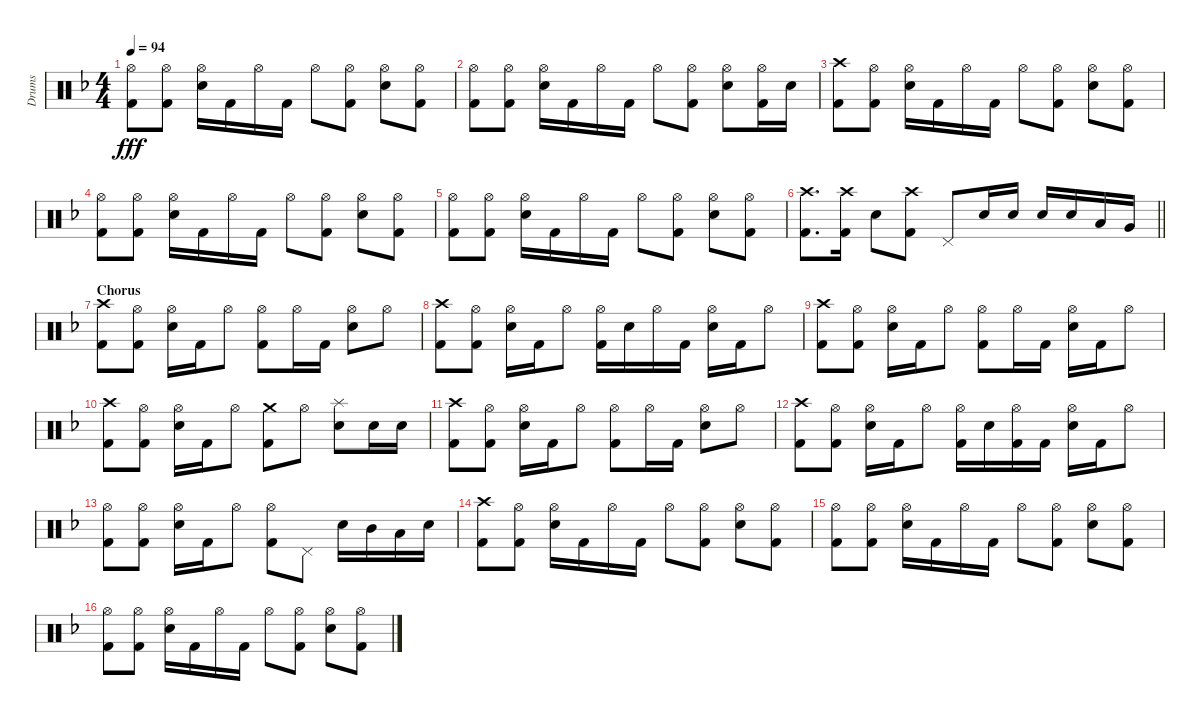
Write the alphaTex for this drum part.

\track ("Drums" "Drums") {instrument percussion}
\staff {score}
\articulation defaults
\ts (4 4)
\tempo 94
\clef neutral
\ks f
("Hi-Hat (open)" "Kick (hit) 2").8{dy fff} ("Hi-Hat (open)" "Kick (hit) 2").8 ("Hi-Hat (open)" "Snare (hit) 2").16 "Kick (hit) 2".16 "Hi-Hat (open)".16 "Kick (hit) 2".16 "Hi-Hat (open)".8 ("Hi-Hat (open)" "Kick (hit) 2").8 ("Hi-Hat (open)" "Snare (hit) 2").8 ("Hi-Hat (open)" "Kick (hit) 2").8 |
("Hi-Hat (open)" "Kick (hit) 2").8 ("Hi-Hat (open)" "Kick (hit) 2").8 ("Hi-Hat (open)" "Snare (hit) 2").16 "Kick (hit) 2".16 "Hi-Hat (open)".16 "Kick (hit) 2".16 "Hi-Hat (open)".8 ("Hi-Hat (open)" "Kick (hit) 2").8 ("Hi-Hat (open)" "Snare (hit) 2").8 ("Hi-Hat (open)" "Kick (hit) 2").16 "Snare (hit) 2".16 |
("Crash high (hit)" "Kick (hit) 2").8 ("Hi-Hat (open)" "Kick (hit) 2").8 ("Hi-Hat (open)" "Snare (hit) 2").16 "Kick (hit) 2".16 "Hi-Hat (open)".16 "Kick (hit) 2".16 "Hi-Hat (open)".8 ("Hi-Hat (open)" "Kick (hit) 2").8 ("Hi-Hat (open)" "Snare (hit) 2").8 ("Hi-Hat (open)" "Kick (hit) 2").8 |
("Hi-Hat (open)" "Kick (hit) 2").8 ("Hi-Hat (open)" "Kick (hit) 2").8 ("Hi-Hat (open)" "Snare (hit) 2").16 "Kick (hit) 2".16 "Hi-Hat (open)".16 "Kick (hit) 2".16 "Hi-Hat (open)".8 ("Hi-Hat (open)" "Kick (hit) 2").8 ("Hi-Hat (open)" "Snare (hit) 2").8 ("Hi-Hat (open)" "Kick (hit) 2").8 |
("Hi-Hat (open)" "Kick (hit) 2").8 ("Hi-Hat (open)" "Kick (hit) 2").8 ("Hi-Hat (open)" "Snare (hit) 2").16 "Kick (hit) 2".16 "Hi-Hat (open)".16 "Kick (hit) 2".16 "Hi-Hat (open)".8 ("Hi-Hat (open)" "Kick (hit) 2").8 ("Hi-Hat (open)" "Snare (hit) 2").8 ("Hi-Hat (open)" "Kick (hit) 2").8 |
\barLineRight lightlight
("Crash high (hit)" "Kick (hit) 2").8{d} ("Crash high (hit)" "Kick (hit) 2").16 "Snare (hit) 2".8 ("Crash high (hit)" "Kick (hit) 2").8 "Pedal Hi-Hat (hit)".8 "Snare (hit) 2".16 "Snare (hit) 2".16 "Snare (hit) 2".16 "Snare (hit) 2".16 "Low Tom (hit)".16 "Very Low Tom (hit)".16 |
\section ("" "Chorus")
("Crash high (hit)" "Kick (hit) 2").8 ("Hi-Hat (open)" "Kick (hit) 2").8 ("Hi-Hat (open)" "Snare (hit) 2").16 "Kick (hit) 2".16 "Hi-Hat (open)".8 ("Hi-Hat (open)" "Kick (hit) 2").8 "Hi-Hat (open)".16 "Kick (hit) 2".16 ("Hi-Hat (open)" "Snare (hit) 2").8 "Hi-Hat (open)".8 |
("Crash high (hit)" "Kick (hit) 2").8 ("Hi-Hat (open)" "Kick (hit) 2").8 ("Hi-Hat (open)" "Snare (hit) 2").16 "Kick (hit) 2".16 "Hi-Hat (open)".8 ("Hi-Hat (open)" "Kick (hit) 2").16 "Snare (hit) 2".16 "Hi-Hat (open)".16 "Kick (hit) 2".16 ("Hi-Hat (open)" "Snare (hit) 2").16 "Kick (hit) 2".16 "Hi-Hat (open)".8 |
("Crash high (hit)" "Kick (hit) 2").8 ("Hi-Hat (open)" "Kick (hit) 2").8 ("Hi-Hat (open)" "Snare (hit) 2").16 "Kick (hit) 2".16 "Hi-Hat (open)".8 ("Hi-Hat (open)" "Kick (hit) 2").8 "Hi-Hat (open)".16 "Kick (hit) 2".16 ("Hi-Hat (open)" "Snare (hit) 2").16 "Kick (hit) 2".16 "Hi-Hat (open)".8 |
("Crash high (hit)" "Kick (hit) 2").8 ("Hi-Hat (open)" "Kick (hit) 2").8 ("Hi-Hat (open)" "Snare (hit) 2").16 "Kick (hit) 2".16 "Hi-Hat (open)".8 ("Crash medium (hit)" "Kick (hit) 2").8 "Hi-Hat (open)".8 ("Splash (hit)" "Snare (hit) 2").8 "Snare (hit) 2".16 "Snare (hit) 2".16 |
("Crash high (hit)" "Kick (hit) 2").8 ("Hi-Hat (open)" "Kick (hit) 2").8 ("Hi-Hat (open)" "Snare (hit) 2").16 "Kick (hit) 2".16 "Hi-Hat (open)".8 ("Hi-Hat (open)" "Kick (hit) 2").8 "Hi-Hat (open)".16 "Kick (hit) 2".16 ("Hi-Hat (open)" "Snare (hit) 2").8 "Hi-Hat (open)".8 |
("Crash high (hit)" "Kick (hit) 2").8 ("Hi-Hat (open)" "Kick (hit) 2").8 ("Hi-Hat (open)" "Snare (hit) 2").16 "Kick (hit) 2".16 "Hi-Hat (open)".8 ("Hi-Hat (open)" "Kick (hit) 2").16 "Snare (hit) 2".16 ("Hi-Hat (open)" "Kick (hit) 2").16 "Kick (hit) 2".16 ("Hi-Hat (open)" "Snare (hit) 2").16 "Kick (hit) 2".16 "Hi-Hat (open)".8 |
("Hi-Hat (open)" "Kick (hit) 2").8 ("Hi-Hat (open)" "Kick (hit) 2").8 ("Hi-Hat (open)" "Snare (hit) 2").16 "Kick (hit) 2".16 "Hi-Hat (open)".8 ("Hi-Hat (open)" "Kick (hit) 2").8 "Pedal Hi-Hat (hit)".8 "Snare (hit) 2".16 "Mid Tom (hit)".16 "Low Tom (hit)".16 "Snare (hit) 2".16 |
("Crash high (hit)" "Kick (hit) 2").8 ("Hi-Hat (open)" "Kick (hit) 2").8 ("Hi-Hat (open)" "Snare (hit) 2").16 "Kick (hit) 2".16 "Hi-Hat (open)".16 "Kick (hit) 2".16 "Hi-Hat (open)".8 ("Hi-Hat (open)" "Kick (hit) 2").8 ("Hi-Hat (open)" "Snare (hit) 2").8 ("Hi-Hat (open)" "Kick (hit) 2").8 |
("Hi-Hat (open)" "Kick (hit) 2").8 ("Hi-Hat (open)" "Kick (hit) 2").8 ("Hi-Hat (open)" "Snare (hit) 2").16 "Kick (hit) 2".16 "Hi-Hat (open)".16 "Kick (hit) 2".16 "Hi-Hat (open)".8 ("Hi-Hat (open)" "Kick (hit) 2").8 ("Hi-Hat (open)" "Snare (hit) 2").8 ("Hi-Hat (open)" "Kick (hit) 2").8 |
("Hi-Hat (open)" "Kick (hit) 2").8 ("Hi-Hat (open)" "Kick (hit) 2").8 ("Hi-Hat (open)" "Snare (hit) 2").16 "Kick (hit) 2".16 "Hi-Hat (open)".16 "Kick (hit) 2".16 "Hi-Hat (open)".8 ("Hi-Hat (open)" "Kick (hit) 2").8 ("Hi-Hat (open)" "Snare (hit) 2").8 ("Hi-Hat (open)" "Kick (hit) 2").8
